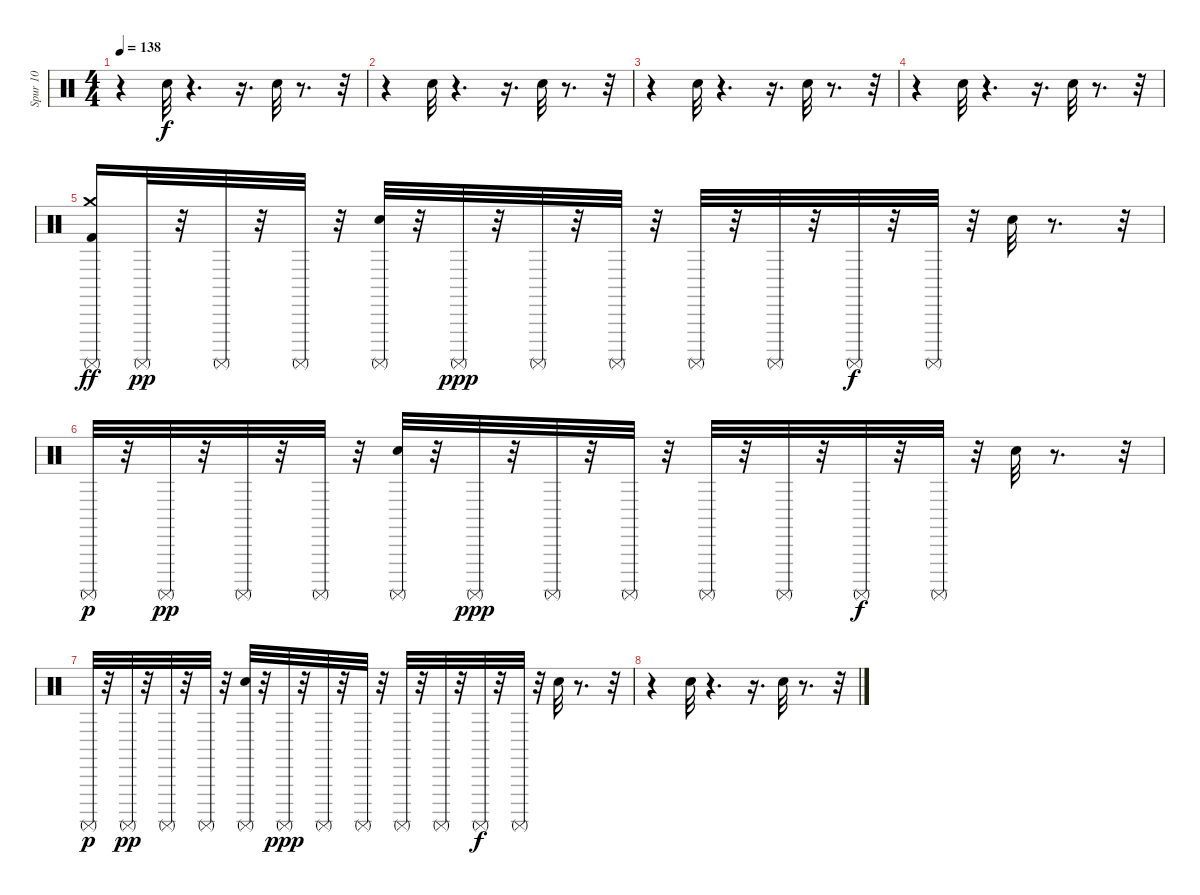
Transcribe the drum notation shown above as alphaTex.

\track ("Spur 10" "Spur 10") {instrument percussion}
\staff {score}
\articulation defaults
\ts (4 4)
\tempo 138
\clef neutral
\ks c
r.4{dy f} "Hand Clap (hit)".32 r.4{d} r.16{d} "Hand Clap (hit)".32 r.8{d} r.32 |
r.4 "Hand Clap (hit)".32 r.4{d} r.16{d} "Hand Clap (hit)".32 r.8{d} r.32 |
r.4 "Hand Clap (hit)".32 r.4{d} r.16{d} "Hand Clap (hit)".32 r.8{d} r.32 |
r.4 "Hand Clap (hit)".32 r.4{d} r.16{d} "Hand Clap (hit)".32 r.8{d} r.32 |
("Surdo (mute)" "Crash medium (hit)" "Kick (hit) 2").16{dy ff} "Surdo (mute)".32{dy pp} r.32 "Surdo (mute)".32 r.32 "Surdo (mute)".32 r.32 ("Hand Clap (hit)" "Surdo (mute)").32 r.32 "Surdo (mute)".32{dy ppp} r.32 "Surdo (mute)".32 r.32 "Surdo (mute)".32 r.32 "Surdo (mute)".32 r.32 "Surdo (mute)".32 r.32 "Surdo (mute)".32{dy f} r.32 "Surdo (mute)".32 r.32 "Hand Clap (hit)".32 r.8{d} r.32 |
"Surdo (mute)".32{dy p} r.32 "Surdo (mute)".32{dy pp} r.32 "Surdo (mute)".32 r.32 "Surdo (mute)".32 r.32 ("Hand Clap (hit)" "Surdo (mute)").32 r.32 "Surdo (mute)".32{dy ppp} r.32 "Surdo (mute)".32 r.32 "Surdo (mute)".32 r.32 "Surdo (mute)".32 r.32 "Surdo (mute)".32 r.32 "Surdo (mute)".32{dy f} r.32 "Surdo (mute)".32 r.32 "Hand Clap (hit)".32 r.8{d} r.32 |
"Surdo (mute)".32{dy p} r.32 "Surdo (mute)".32{dy pp} r.32 "Surdo (mute)".32 r.32 "Surdo (mute)".32 r.32 ("Hand Clap (hit)" "Surdo (mute)").32 r.32 "Surdo (mute)".32{dy ppp} r.32 "Surdo (mute)".32 r.32 "Surdo (mute)".32 r.32 "Surdo (mute)".32 r.32 "Surdo (mute)".32 r.32 "Surdo (mute)".32{dy f} r.32 "Surdo (mute)".32 r.32 "Hand Clap (hit)".32 r.8{d} r.32 |
r.4 "Hand Clap (hit)".32 r.4{d} r.16{d} "Hand Clap (hit)".32 r.8{d} r.32
